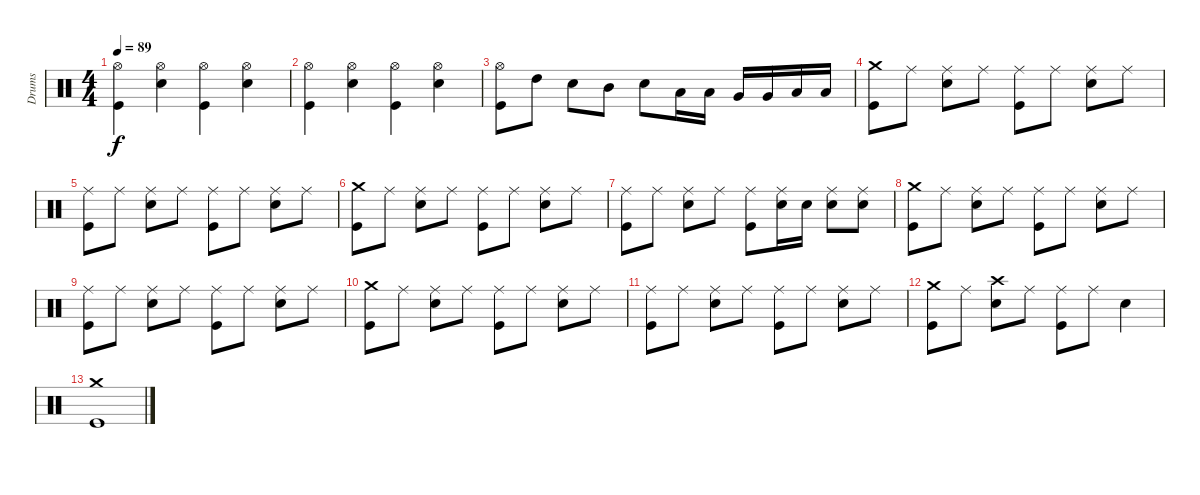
\track ("Drums" "Drums") {instrument percussion}
\staff {score}
\articulation defaults
\ts (4 4)
\tempo 89
\clef neutral
\ks c
("Hi-Hat (open)" "Kick (hit)").4{dy f} ("Hi-Hat (open)" "Snare (hit) 2").4 ("Hi-Hat (open)" "Kick (hit)").4 ("Hi-Hat (open)" "Snare (hit) 2").4 |
("Hi-Hat (open)" "Kick (hit)").4 ("Hi-Hat (open)" "Snare (hit) 2").4 ("Hi-Hat (open)" "Kick (hit)").4 ("Hi-Hat (open)" "Snare (hit) 2").4 |
("Hi-Hat (open)" "Kick (hit)").8 "High Tom (hit)".8 "Snare (hit) 2".8 "Mid Tom (hit)".8 "Snare (hit) 2".8 "Low Tom (hit)".16 "Low Tom (hit)".16 "Very Low Tom (hit)".16 "Very Low Tom (hit)".16 "Low Floor Tom (hit)".16 "Low Floor Tom (hit)".16 |
("Crash medium (hit)" "Kick (hit)").8 "Ride (middle)".8 ("Ride (middle)" "Snare (hit) 2").8 "Ride (middle)".8 ("Ride (middle)" "Kick (hit)").8 "Ride (middle)".8 ("Ride (middle)" "Snare (hit) 2").8 "Ride (middle)".8 |
("Ride (middle)" "Kick (hit)").8 "Ride (middle)".8 ("Ride (middle)" "Snare (hit) 2").8 "Ride (middle)".8 ("Ride (middle)" "Kick (hit)").8 "Ride (middle)".8 ("Ride (middle)" "Snare (hit) 2").8 "Ride (middle)".8 |
("Crash medium (hit)" "Kick (hit)").8 "Ride (middle)".8 ("Ride (middle)" "Snare (hit) 2").8 "Ride (middle)".8 ("Ride (middle)" "Kick (hit)").8 "Ride (middle)".8 ("Ride (middle)" "Snare (hit) 2").8 "Ride (middle)".8 |
("Ride (middle)" "Kick (hit)").8 "Ride (middle)".8 ("Ride (middle)" "Snare (hit) 2").8 "Ride (middle)".8 ("Ride (middle)" "Kick (hit)").8 ("Ride (middle)" "Snare (hit) 2").16 "Snare (hit) 2".16 ("Ride (middle)" "Snare (hit) 2").8 ("Ride (middle)" "Snare (hit) 2").8 |
("Crash medium (hit)" "Kick (hit)").8 "Ride (middle)".8 ("Ride (middle)" "Snare (hit) 2").8 "Ride (middle)".8 ("Ride (middle)" "Kick (hit)").8 "Ride (middle)".8 ("Ride (middle)" "Snare (hit) 2").8 "Ride (middle)".8 |
("Ride (middle)" "Kick (hit)").8 "Ride (middle)".8 ("Ride (middle)" "Snare (hit) 2").8 "Ride (middle)".8 ("Ride (middle)" "Kick (hit)").8 "Ride (middle)".8 ("Ride (middle)" "Snare (hit) 2").8 "Ride (middle)".8 |
("Crash medium (hit)" "Kick (hit)").8 "Ride (middle)".8 ("Ride (middle)" "Snare (hit) 2").8 "Ride (middle)".8 ("Ride (middle)" "Kick (hit)").8 "Ride (middle)".8 ("Ride (middle)" "Snare (hit) 2").8 "Ride (middle)".8 |
("Ride (middle)" "Kick (hit)").8 "Ride (middle)".8 ("Ride (middle)" "Snare (hit) 2").8 "Ride (middle)".8 ("Ride (middle)" "Kick (hit)").8 "Ride (middle)".8 ("Ride (middle)" "Snare (hit) 2").8 "Ride (middle)".8 |
("Crash medium (hit)" "Kick (hit)").8 "Ride (middle)".8 ("Crash high (hit)" "Snare (hit) 2").8 "Ride (middle)".8 ("Ride (middle)" "Kick (hit)").8 "Ride (middle)".8 "Snare (hit) 2".4 |
("Crash medium (hit)" "Kick (hit)").1
